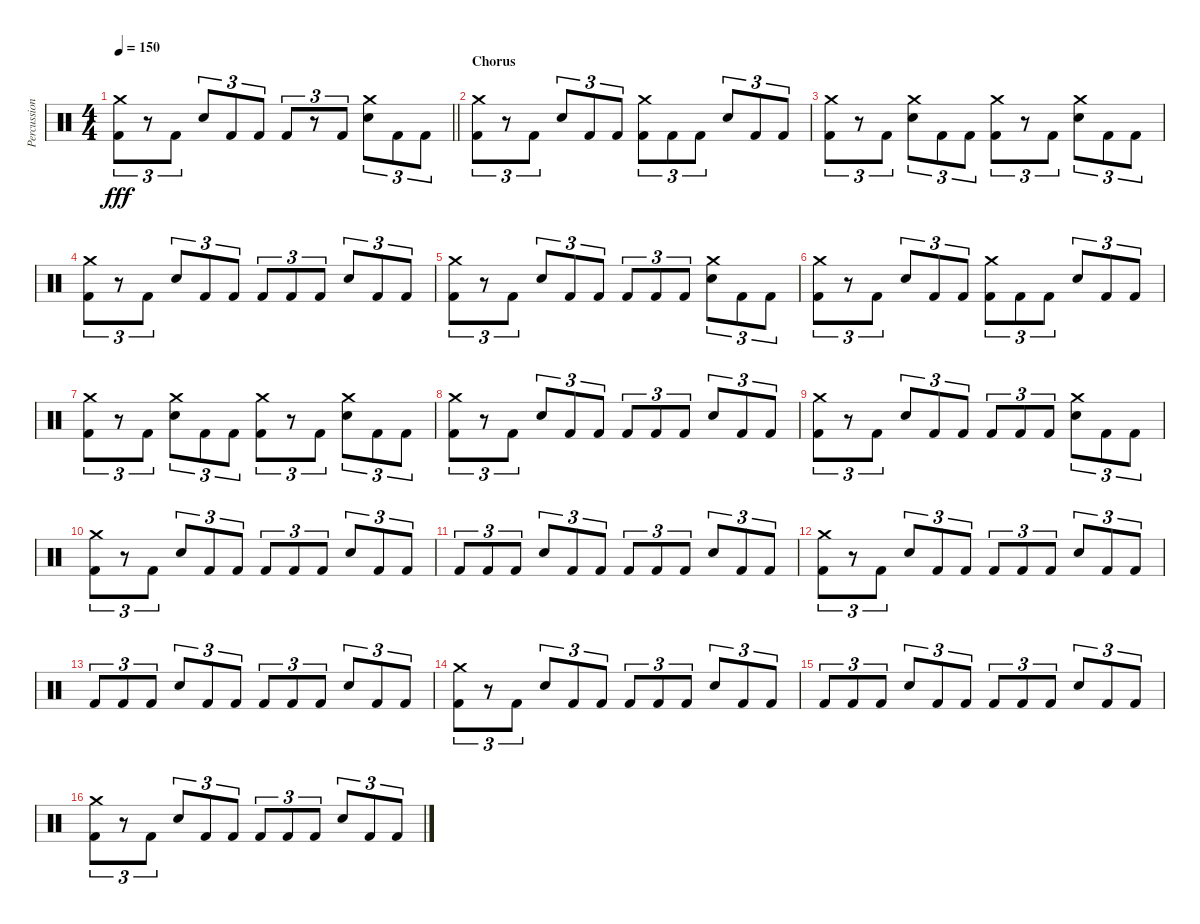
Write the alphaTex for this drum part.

\track ("Percussion" "Percussion") {instrument percussion}
\staff {score}
\articulation defaults
\ts (4 4)
\tempo 150
\clef neutral
\barLineRight lightlight
\ks c
("Crash medium (hit)" "Kick (hit) 2").8{tu (3 2) dy fff} r.8{tu (3 2)} "Kick (hit) 2".8{tu (3 2)} "Snare (hit) 2".8{tu (3 2)} "Kick (hit) 2".8{tu (3 2)} "Kick (hit) 2".8{tu (3 2)} "Kick (hit) 2".8{tu (3 2)} r.8{tu (3 2)} "Kick (hit) 2".8{tu (3 2)} ("Crash medium (hit)" "Snare (hit) 2").8{tu (3 2)} "Kick (hit) 2".8{tu (3 2)} "Kick (hit) 2".8{tu (3 2)} |
\section ("" "Chorus")
("Crash medium (hit)" "Kick (hit) 2").8{tu (3 2)} r.8{tu (3 2)} "Kick (hit) 2".8{tu (3 2)} "Snare (hit) 2".8{tu (3 2)} "Kick (hit) 2".8{tu (3 2)} "Kick (hit) 2".8{tu (3 2)} ("Crash medium (hit)" "Kick (hit) 2").8{tu (3 2)} "Kick (hit) 2".8{tu (3 2)} "Kick (hit) 2".8{tu (3 2)} "Snare (hit) 2".8{tu (3 2)} "Kick (hit) 2".8{tu (3 2)} "Kick (hit) 2".8{tu (3 2)} |
("Crash medium (hit)" "Kick (hit) 2").8{tu (3 2)} r.8{tu (3 2)} "Kick (hit) 2".8{tu (3 2)} ("Crash medium (hit)" "Snare (hit) 2").8{tu (3 2)} "Kick (hit) 2".8{tu (3 2)} "Kick (hit) 2".8{tu (3 2)} ("Crash medium (hit)" "Kick (hit) 2").8{tu (3 2)} r.8{tu (3 2)} "Kick (hit) 2".8{tu (3 2)} ("Crash medium (hit)" "Snare (hit) 2").8{tu (3 2)} "Kick (hit) 2".8{tu (3 2)} "Kick (hit) 2".8{tu (3 2)} |
("Crash medium (hit)" "Kick (hit) 2").8{tu (3 2)} r.8{tu (3 2)} "Kick (hit) 2".8{tu (3 2)} "Snare (hit) 2".8{tu (3 2)} "Kick (hit) 2".8{tu (3 2)} "Kick (hit) 2".8{tu (3 2)} "Kick (hit) 2".8{tu (3 2)} "Kick (hit) 2".8{tu (3 2)} "Kick (hit) 2".8{tu (3 2)} "Snare (hit) 2".8{tu (3 2)} "Kick (hit) 2".8{tu (3 2)} "Kick (hit) 2".8{tu (3 2)} |
("Crash medium (hit)" "Kick (hit) 2").8{tu (3 2)} r.8{tu (3 2)} "Kick (hit) 2".8{tu (3 2)} "Snare (hit) 2".8{tu (3 2)} "Kick (hit) 2".8{tu (3 2)} "Kick (hit) 2".8{tu (3 2)} "Kick (hit) 2".8{tu (3 2)} "Kick (hit) 2".8{tu (3 2)} "Kick (hit) 2".8{tu (3 2)} ("Crash medium (hit)" "Snare (hit) 2").8{tu (3 2)} "Kick (hit) 2".8{tu (3 2)} "Kick (hit) 2".8{tu (3 2)} |
("Crash medium (hit)" "Kick (hit) 2").8{tu (3 2)} r.8{tu (3 2)} "Kick (hit) 2".8{tu (3 2)} "Snare (hit) 2".8{tu (3 2)} "Kick (hit) 2".8{tu (3 2)} "Kick (hit) 2".8{tu (3 2)} ("Crash medium (hit)" "Kick (hit) 2").8{tu (3 2)} "Kick (hit) 2".8{tu (3 2)} "Kick (hit) 2".8{tu (3 2)} "Snare (hit) 2".8{tu (3 2)} "Kick (hit) 2".8{tu (3 2)} "Kick (hit) 2".8{tu (3 2)} |
("Crash medium (hit)" "Kick (hit) 2").8{tu (3 2)} r.8{tu (3 2)} "Kick (hit) 2".8{tu (3 2)} ("Crash medium (hit)" "Snare (hit) 2").8{tu (3 2)} "Kick (hit) 2".8{tu (3 2)} "Kick (hit) 2".8{tu (3 2)} ("Crash medium (hit)" "Kick (hit) 2").8{tu (3 2)} r.8{tu (3 2)} "Kick (hit) 2".8{tu (3 2)} ("Crash medium (hit)" "Snare (hit) 2").8{tu (3 2)} "Kick (hit) 2".8{tu (3 2)} "Kick (hit) 2".8{tu (3 2)} |
("Crash medium (hit)" "Kick (hit) 2").8{tu (3 2)} r.8{tu (3 2)} "Kick (hit) 2".8{tu (3 2)} "Snare (hit) 2".8{tu (3 2)} "Kick (hit) 2".8{tu (3 2)} "Kick (hit) 2".8{tu (3 2)} "Kick (hit) 2".8{tu (3 2)} "Kick (hit) 2".8{tu (3 2)} "Kick (hit) 2".8{tu (3 2)} "Snare (hit) 2".8{tu (3 2)} "Kick (hit) 2".8{tu (3 2)} "Kick (hit) 2".8{tu (3 2)} |
("Crash medium (hit)" "Kick (hit) 2").8{tu (3 2)} r.8{tu (3 2)} "Kick (hit) 2".8{tu (3 2)} "Snare (hit) 2".8{tu (3 2)} "Kick (hit) 2".8{tu (3 2)} "Kick (hit) 2".8{tu (3 2)} "Kick (hit) 2".8{tu (3 2)} "Kick (hit) 2".8{tu (3 2)} "Kick (hit) 2".8{tu (3 2)} ("Crash medium (hit)" "Snare (hit) 2").8{tu (3 2)} "Kick (hit) 2".8{tu (3 2)} "Kick (hit) 2".8{tu (3 2)} |
("Crash medium (hit)" "Kick (hit) 2").8{tu (3 2)} r.8{tu (3 2)} "Kick (hit) 2".8{tu (3 2)} "Snare (hit) 2".8{tu (3 2)} "Kick (hit) 2".8{tu (3 2)} "Kick (hit) 2".8{tu (3 2)} "Kick (hit) 2".8{tu (3 2)} "Kick (hit) 2".8{tu (3 2)} "Kick (hit) 2".8{tu (3 2)} "Snare (hit) 2".8{tu (3 2)} "Kick (hit) 2".8{tu (3 2)} "Kick (hit) 2".8{tu (3 2)} |
"Kick (hit) 2".8{tu (3 2)} "Kick (hit) 2".8{tu (3 2)} "Kick (hit) 2".8{tu (3 2)} "Snare (hit) 2".8{tu (3 2)} "Kick (hit) 2".8{tu (3 2)} "Kick (hit) 2".8{tu (3 2)} "Kick (hit) 2".8{tu (3 2)} "Kick (hit) 2".8{tu (3 2)} "Kick (hit) 2".8{tu (3 2)} "Snare (hit) 2".8{tu (3 2)} "Kick (hit) 2".8{tu (3 2)} "Kick (hit) 2".8{tu (3 2)} |
("Crash medium (hit)" "Kick (hit) 2").8{tu (3 2)} r.8{tu (3 2)} "Kick (hit) 2".8{tu (3 2)} "Snare (hit) 2".8{tu (3 2)} "Kick (hit) 2".8{tu (3 2)} "Kick (hit) 2".8{tu (3 2)} "Kick (hit) 2".8{tu (3 2)} "Kick (hit) 2".8{tu (3 2)} "Kick (hit) 2".8{tu (3 2)} "Snare (hit) 2".8{tu (3 2)} "Kick (hit) 2".8{tu (3 2)} "Kick (hit) 2".8{tu (3 2)} |
"Kick (hit) 2".8{tu (3 2)} "Kick (hit) 2".8{tu (3 2)} "Kick (hit) 2".8{tu (3 2)} "Snare (hit) 2".8{tu (3 2)} "Kick (hit) 2".8{tu (3 2)} "Kick (hit) 2".8{tu (3 2)} "Kick (hit) 2".8{tu (3 2)} "Kick (hit) 2".8{tu (3 2)} "Kick (hit) 2".8{tu (3 2)} "Snare (hit) 2".8{tu (3 2)} "Kick (hit) 2".8{tu (3 2)} "Kick (hit) 2".8{tu (3 2)} |
("Crash medium (hit)" "Kick (hit) 2").8{tu (3 2)} r.8{tu (3 2)} "Kick (hit) 2".8{tu (3 2)} "Snare (hit) 2".8{tu (3 2)} "Kick (hit) 2".8{tu (3 2)} "Kick (hit) 2".8{tu (3 2)} "Kick (hit) 2".8{tu (3 2)} "Kick (hit) 2".8{tu (3 2)} "Kick (hit) 2".8{tu (3 2)} "Snare (hit) 2".8{tu (3 2)} "Kick (hit) 2".8{tu (3 2)} "Kick (hit) 2".8{tu (3 2)} |
"Kick (hit) 2".8{tu (3 2)} "Kick (hit) 2".8{tu (3 2)} "Kick (hit) 2".8{tu (3 2)} "Snare (hit) 2".8{tu (3 2)} "Kick (hit) 2".8{tu (3 2)} "Kick (hit) 2".8{tu (3 2)} "Kick (hit) 2".8{tu (3 2)} "Kick (hit) 2".8{tu (3 2)} "Kick (hit) 2".8{tu (3 2)} "Snare (hit) 2".8{tu (3 2)} "Kick (hit) 2".8{tu (3 2)} "Kick (hit) 2".8{tu (3 2)} |
("Crash medium (hit)" "Kick (hit) 2").8{tu (3 2)} r.8{tu (3 2)} "Kick (hit) 2".8{tu (3 2)} "Snare (hit) 2".8{tu (3 2)} "Kick (hit) 2".8{tu (3 2)} "Kick (hit) 2".8{tu (3 2)} "Kick (hit) 2".8{tu (3 2)} "Kick (hit) 2".8{tu (3 2)} "Kick (hit) 2".8{tu (3 2)} "Snare (hit) 2".8{tu (3 2)} "Kick (hit) 2".8{tu (3 2)} "Kick (hit) 2".8{tu (3 2)}
